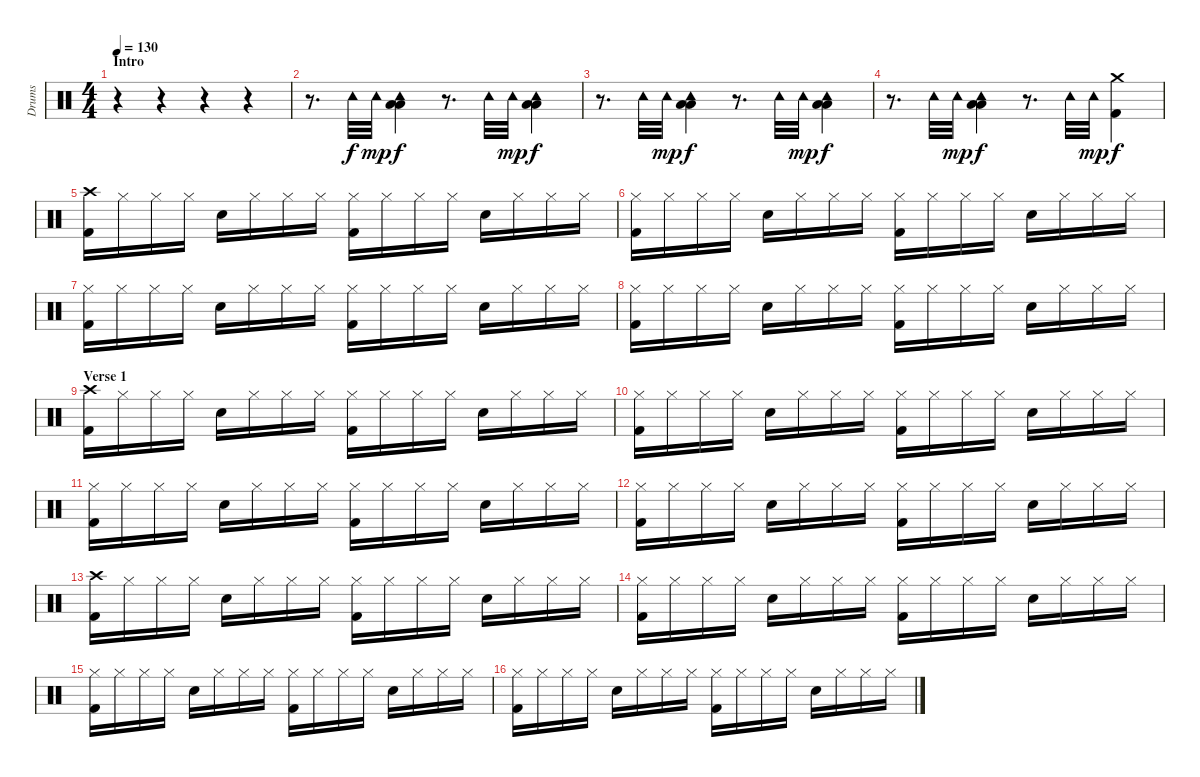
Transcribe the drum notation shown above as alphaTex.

\track ("Drums" "Drums") {instrument percussion}
\staff {score}
\articulation defaults
\ts (4 4)
\section ("" "Intro")
\tempo 130
\clef neutral
\ks c
r.4{dy f} r.4 r.4 r.4 |
r.8{d} "Tambourine (hit)".32 "Tambourine (hit)".32{dy mp} ("Tambourine (hit)" "Low Floor Tom (hit)" "Low Floor Tom (hit)").4{dy f} r.8{d} "Tambourine (hit)".32 "Tambourine (hit)".32{dy mp} ("Tambourine (hit)" "Low Floor Tom (hit)" "Low Floor Tom (hit)").4{dy f} |
r.8{d} "Tambourine (hit)".32 "Tambourine (hit)".32{dy mp} ("Tambourine (hit)" "Low Floor Tom (hit)" "Low Floor Tom (hit)").4{dy f} r.8{d} "Tambourine (hit)".32 "Tambourine (hit)".32{dy mp} ("Tambourine (hit)" "Low Floor Tom (hit)" "Low Floor Tom (hit)").4{dy f} |
r.8{d} "Tambourine (hit)".32 "Tambourine (hit)".32{dy mp} ("Tambourine (hit)" "Low Floor Tom (hit)" "Low Floor Tom (hit)").4{dy f} r.8{d} "Tambourine (hit)".32 "Tambourine (hit)".32{dy mp} ("Crash medium (hit)" "Kick (hit) 2").4{dy f} |
("Crash high (hit)" "Kick (hit) 2").16 "Hi-Hat (closed)".16 "Hi-Hat (closed)".16 "Hi-Hat (closed)".16 "Electric Snare (hit)".16 "Hi-Hat (closed)".16 "Hi-Hat (closed)".16 "Hi-Hat (closed)".16 ("Hi-Hat (closed)" "Kick (hit) 2").16 "Hi-Hat (closed)".16 "Hi-Hat (closed)".16 "Hi-Hat (closed)".16 "Electric Snare (hit)".16 "Hi-Hat (closed)".16 "Hi-Hat (closed)".16 "Hi-Hat (closed)".16 |
("Hi-Hat (closed)" "Kick (hit) 2").16 "Hi-Hat (closed)".16 "Hi-Hat (closed)".16 "Hi-Hat (closed)".16 "Electric Snare (hit)".16 "Hi-Hat (closed)".16 "Hi-Hat (closed)".16 "Hi-Hat (closed)".16 ("Hi-Hat (closed)" "Kick (hit) 2").16 "Hi-Hat (closed)".16 "Hi-Hat (closed)".16 "Hi-Hat (closed)".16 "Electric Snare (hit)".16 "Hi-Hat (closed)".16 "Hi-Hat (closed)".16 "Hi-Hat (closed)".16 |
("Hi-Hat (closed)" "Kick (hit) 2").16 "Hi-Hat (closed)".16 "Hi-Hat (closed)".16 "Hi-Hat (closed)".16 "Electric Snare (hit)".16 "Hi-Hat (closed)".16 "Hi-Hat (closed)".16 "Hi-Hat (closed)".16 ("Hi-Hat (closed)" "Kick (hit) 2").16 "Hi-Hat (closed)".16 "Hi-Hat (closed)".16 "Hi-Hat (closed)".16 "Electric Snare (hit)".16 "Hi-Hat (closed)".16 "Hi-Hat (closed)".16 "Hi-Hat (closed)".16 |
("Hi-Hat (closed)" "Kick (hit) 2").16 "Hi-Hat (closed)".16 "Hi-Hat (closed)".16 "Hi-Hat (closed)".16 "Electric Snare (hit)".16 "Hi-Hat (closed)".16 "Hi-Hat (closed)".16 "Hi-Hat (closed)".16 ("Hi-Hat (closed)" "Kick (hit) 2").16 "Hi-Hat (closed)".16 "Hi-Hat (closed)".16 "Hi-Hat (closed)".16 "Electric Snare (hit)".16 "Hi-Hat (closed)".16 "Hi-Hat (closed)".16 "Hi-Hat (closed)".16 |
\section ("" "Verse 1")
("Crash high (hit)" "Kick (hit) 2").16 "Hi-Hat (closed)".16 "Hi-Hat (closed)".16 "Hi-Hat (closed)".16 "Electric Snare (hit)".16 "Hi-Hat (closed)".16 "Hi-Hat (closed)".16 "Hi-Hat (closed)".16 ("Hi-Hat (closed)" "Kick (hit) 2").16 "Hi-Hat (closed)".16 "Hi-Hat (closed)".16 "Hi-Hat (closed)".16 "Electric Snare (hit)".16 "Hi-Hat (closed)".16 "Hi-Hat (closed)".16 "Hi-Hat (closed)".16 |
("Hi-Hat (closed)" "Kick (hit) 2").16 "Hi-Hat (closed)".16 "Hi-Hat (closed)".16 "Hi-Hat (closed)".16 "Electric Snare (hit)".16 "Hi-Hat (closed)".16 "Hi-Hat (closed)".16 "Hi-Hat (closed)".16 ("Hi-Hat (closed)" "Kick (hit) 2").16 "Hi-Hat (closed)".16 "Hi-Hat (closed)".16 "Hi-Hat (closed)".16 "Electric Snare (hit)".16 "Hi-Hat (closed)".16 "Hi-Hat (closed)".16 "Hi-Hat (closed)".16 |
("Hi-Hat (closed)" "Kick (hit) 2").16 "Hi-Hat (closed)".16 "Hi-Hat (closed)".16 "Hi-Hat (closed)".16 "Electric Snare (hit)".16 "Hi-Hat (closed)".16 "Hi-Hat (closed)".16 "Hi-Hat (closed)".16 ("Hi-Hat (closed)" "Kick (hit) 2").16 "Hi-Hat (closed)".16 "Hi-Hat (closed)".16 "Hi-Hat (closed)".16 "Electric Snare (hit)".16 "Hi-Hat (closed)".16 "Hi-Hat (closed)".16 "Hi-Hat (closed)".16 |
("Hi-Hat (closed)" "Kick (hit) 2").16 "Hi-Hat (closed)".16 "Hi-Hat (closed)".16 "Hi-Hat (closed)".16 "Electric Snare (hit)".16 "Hi-Hat (closed)".16 "Hi-Hat (closed)".16 "Hi-Hat (closed)".16 ("Hi-Hat (closed)" "Kick (hit) 2").16 "Hi-Hat (closed)".16 "Hi-Hat (closed)".16 "Hi-Hat (closed)".16 "Electric Snare (hit)".16 "Hi-Hat (closed)".16 "Hi-Hat (closed)".16 "Hi-Hat (closed)".16 |
("Crash high (hit)" "Kick (hit) 2").16 "Hi-Hat (closed)".16 "Hi-Hat (closed)".16 "Hi-Hat (closed)".16 "Electric Snare (hit)".16 "Hi-Hat (closed)".16 "Hi-Hat (closed)".16 "Hi-Hat (closed)".16 ("Hi-Hat (closed)" "Kick (hit) 2").16 "Hi-Hat (closed)".16 "Hi-Hat (closed)".16 "Hi-Hat (closed)".16 "Electric Snare (hit)".16 "Hi-Hat (closed)".16 "Hi-Hat (closed)".16 "Hi-Hat (closed)".16 |
("Hi-Hat (closed)" "Kick (hit) 2").16 "Hi-Hat (closed)".16 "Hi-Hat (closed)".16 "Hi-Hat (closed)".16 "Electric Snare (hit)".16 "Hi-Hat (closed)".16 "Hi-Hat (closed)".16 "Hi-Hat (closed)".16 ("Hi-Hat (closed)" "Kick (hit) 2").16 "Hi-Hat (closed)".16 "Hi-Hat (closed)".16 "Hi-Hat (closed)".16 "Electric Snare (hit)".16 "Hi-Hat (closed)".16 "Hi-Hat (closed)".16 "Hi-Hat (closed)".16 |
("Hi-Hat (closed)" "Kick (hit) 2").16 "Hi-Hat (closed)".16 "Hi-Hat (closed)".16 "Hi-Hat (closed)".16 "Electric Snare (hit)".16 "Hi-Hat (closed)".16 "Hi-Hat (closed)".16 "Hi-Hat (closed)".16 ("Hi-Hat (closed)" "Kick (hit) 2").16 "Hi-Hat (closed)".16 "Hi-Hat (closed)".16 "Hi-Hat (closed)".16 "Electric Snare (hit)".16 "Hi-Hat (closed)".16 "Hi-Hat (closed)".16 "Hi-Hat (closed)".16 |
("Hi-Hat (closed)" "Kick (hit) 2").16 "Hi-Hat (closed)".16 "Hi-Hat (closed)".16 "Hi-Hat (closed)".16 "Electric Snare (hit)".16 "Hi-Hat (closed)".16 "Hi-Hat (closed)".16 "Hi-Hat (closed)".16 ("Hi-Hat (closed)" "Kick (hit) 2").16 "Hi-Hat (closed)".16 "Hi-Hat (closed)".16 "Hi-Hat (closed)".16 "Electric Snare (hit)".16 "Hi-Hat (closed)".16 "Hi-Hat (closed)".16 "Hi-Hat (closed)".16
